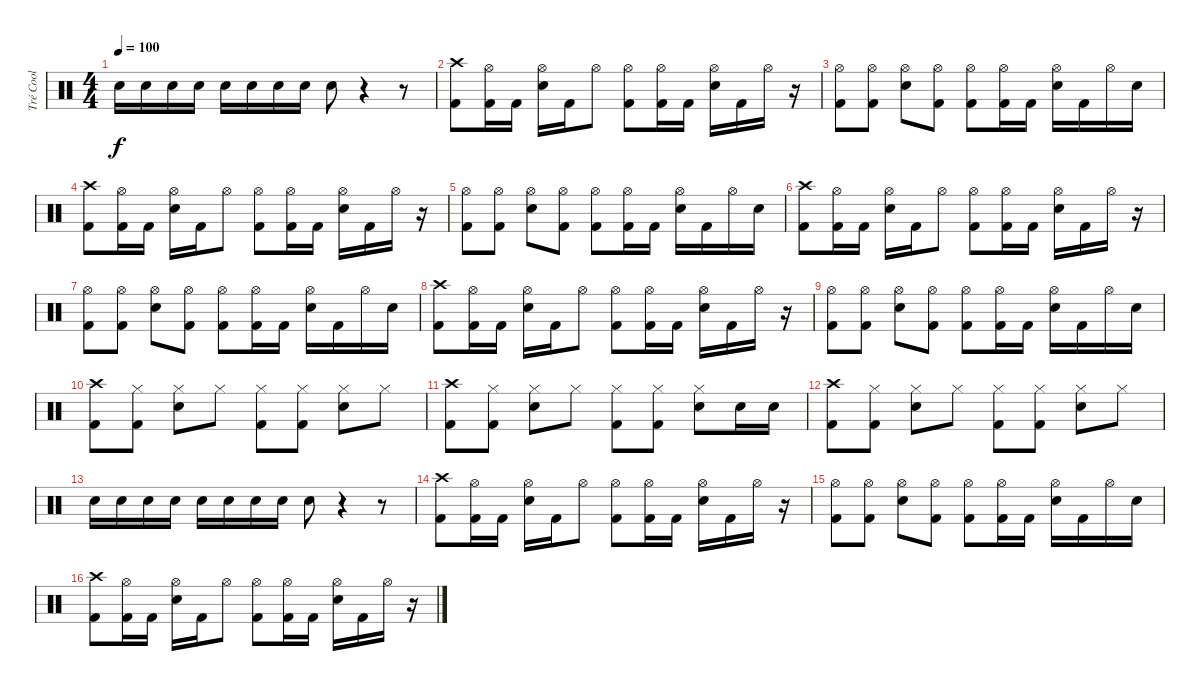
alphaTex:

\track ("Tré Cool" "Tré Cool") {instrument percussion}
\staff {score}
\articulation defaults
\ts (4 4)
\tempo 100
\clef neutral
\ks c "Electric Snare (hit)".16{dy f} "Electric Snare (hit)".16 "Electric Snare (hit)".16 "Electric Snare (hit)".16 "Electric Snare (hit)".16 "Electric Snare (hit)".16 "Electric Snare (hit)".16 "Electric Snare (hit)".16 "Electric Snare (hit)".8
r.4 r.8 |
("Crash high (hit)" "Kick (hit) 2").8 ("Hi-Hat (open)" "Kick (hit) 2").16 "Kick (hit) 2".16 ("Hi-Hat (open)" "Electric Snare (hit)").16 "Kick (hit) 2".16 "Hi-Hat (open)".8 ("Hi-Hat (open)" "Kick (hit) 2").8 ("Hi-Hat (open)" "Kick (hit) 2").16 "Kick (hit) 2".16 ("Hi-Hat (open)" "Electric Snare (hit)").16 "Kick (hit) 2".16 "Hi-Hat (open)".16 r.16 |
("Hi-Hat (open)" "Kick (hit) 2").8 ("Hi-Hat (open)" "Kick (hit) 2").8 ("Hi-Hat (open)" "Electric Snare (hit)").8 ("Hi-Hat (open)" "Kick (hit) 2").8 ("Hi-Hat (open)" "Kick (hit) 2").8 ("Hi-Hat (open)" "Kick (hit) 2").16 "Kick (hit) 2".16 ("Hi-Hat (open)" "Electric Snare (hit)").16 "Kick (hit) 2".16 "Hi-Hat (open)".16 "Electric Snare (hit)".16 |
("Crash high (hit)" "Kick (hit) 2").8 ("Hi-Hat (open)" "Kick (hit) 2").16 "Kick (hit) 2".16 ("Hi-Hat (open)" "Electric Snare (hit)").16 "Kick (hit) 2".16 "Hi-Hat (open)".8 ("Hi-Hat (open)" "Kick (hit) 2").8 ("Hi-Hat (open)" "Kick (hit) 2").16 "Kick (hit) 2".16 ("Hi-Hat (open)" "Electric Snare (hit)").16 "Kick (hit) 2".16 "Hi-Hat (open)".16 r.16 |
("Hi-Hat (open)" "Kick (hit) 2").8 ("Hi-Hat (open)" "Kick (hit) 2").8 ("Hi-Hat (open)" "Electric Snare (hit)").8 ("Hi-Hat (open)" "Kick (hit) 2").8 ("Hi-Hat (open)" "Kick (hit) 2").8 ("Hi-Hat (open)" "Kick (hit) 2").16 "Kick (hit) 2".16 ("Hi-Hat (open)" "Electric Snare (hit)").16 "Kick (hit) 2".16 "Hi-Hat (open)".16 "Electric Snare (hit)".16 |
("Crash high (hit)" "Kick (hit) 2").8 ("Hi-Hat (open)" "Kick (hit) 2").16 "Kick (hit) 2".16 ("Hi-Hat (open)" "Electric Snare (hit)").16 "Kick (hit) 2".16 "Hi-Hat (open)".8 ("Hi-Hat (open)" "Kick (hit) 2").8 ("Hi-Hat (open)" "Kick (hit) 2").16 "Kick (hit) 2".16 ("Hi-Hat (open)" "Electric Snare (hit)").16 "Kick (hit) 2".16 "Hi-Hat (open)".16 r.16 |
("Hi-Hat (open)" "Kick (hit) 2").8 ("Hi-Hat (open)" "Kick (hit) 2").8 ("Hi-Hat (open)" "Electric Snare (hit)").8 ("Hi-Hat (open)" "Kick (hit) 2").8 ("Hi-Hat (open)" "Kick (hit) 2").8 ("Hi-Hat (open)" "Kick (hit) 2").16 "Kick (hit) 2".16 ("Hi-Hat (open)" "Electric Snare (hit)").16 "Kick (hit) 2".16 "Hi-Hat (open)".16 "Electric Snare (hit)".16 |
("Crash high (hit)" "Kick (hit) 2").8 ("Hi-Hat (open)" "Kick (hit) 2").16 "Kick (hit) 2".16 ("Hi-Hat (open)" "Electric Snare (hit)").16 "Kick (hit) 2".16 "Hi-Hat (open)".8 ("Hi-Hat (open)" "Kick (hit) 2").8 ("Hi-Hat (open)" "Kick (hit) 2").16 "Kick (hit) 2".16 ("Hi-Hat (open)" "Electric Snare (hit)").16 "Kick (hit) 2".16 "Hi-Hat (open)".16 r.16 |
("Hi-Hat (open)" "Kick (hit) 2").8 ("Hi-Hat (open)" "Kick (hit) 2").8 ("Hi-Hat (open)" "Electric Snare (hit)").8 ("Hi-Hat (open)" "Kick (hit) 2").8 ("Hi-Hat (open)" "Kick (hit) 2").8 ("Hi-Hat (open)" "Kick (hit) 2").16 "Kick (hit) 2".16 ("Hi-Hat (open)" "Electric Snare (hit)").16 "Kick (hit) 2".16 "Hi-Hat (open)".16 "Electric Snare (hit)".16 |
("Crash high (hit)" "Kick (hit) 2").8 ("Hi-Hat (closed)" "Kick (hit) 2").8 ("Hi-Hat (closed)" "Electric Snare (hit)").8 "Hi-Hat (closed)".8 ("Hi-Hat (closed)" "Kick (hit) 2").8 ("Hi-Hat (closed)" "Kick (hit) 2").8 ("Hi-Hat (closed)" "Electric Snare (hit)").8 "Hi-Hat (closed)".8 |
("Crash high (hit)" "Kick (hit) 2").8 ("Hi-Hat (closed)" "Kick (hit) 2").8 ("Hi-Hat (closed)" "Electric Snare (hit)").8 "Hi-Hat (closed)".8 ("Hi-Hat (closed)" "Kick (hit) 2").8 ("Hi-Hat (closed)" "Kick (hit) 2").8 ("Hi-Hat (closed)" "Electric Snare (hit)").8 "Electric Snare (hit)".16 "Electric Snare (hit)".16 |
("Crash high (hit)" "Kick (hit) 2").8 ("Hi-Hat (closed)" "Kick (hit) 2").8 ("Hi-Hat (closed)" "Electric Snare (hit)").8 "Hi-Hat (closed)".8 ("Hi-Hat (closed)" "Kick (hit) 2").8 ("Hi-Hat (closed)" "Kick (hit) 2").8 ("Hi-Hat (closed)" "Electric Snare (hit)").8 "Hi-Hat (closed)".8 |
"Electric Snare (hit)".16 "Electric Snare (hit)".16 "Electric Snare (hit)".16 "Electric Snare (hit)".16 "Electric Snare (hit)".16 "Electric Snare (hit)".16 "Electric Snare (hit)".16 "Electric Snare (hit)".16 "Electric Snare (hit)".8 r.4 r.8 |
("Crash high (hit)" "Kick (hit) 2").8 ("Hi-Hat (open)" "Kick (hit) 2").16 "Kick (hit) 2".16 ("Hi-Hat (open)" "Electric Snare (hit)").16 "Kick (hit) 2".16 "Hi-Hat (open)".8 ("Hi-Hat (open)" "Kick (hit) 2").8 ("Hi-Hat (open)" "Kick (hit) 2").16 "Kick (hit) 2".16 ("Hi-Hat (open)" "Electric Snare (hit)").16 "Kick (hit) 2".16 "Hi-Hat (open)".16 r.16 |
("Hi-Hat (open)" "Kick (hit) 2").8 ("Hi-Hat (open)" "Kick (hit) 2").8 ("Hi-Hat (open)" "Electric Snare (hit)").8 ("Hi-Hat (open)" "Kick (hit) 2").8 ("Hi-Hat (open)" "Kick (hit) 2").8 ("Hi-Hat (open)" "Kick (hit) 2").16 "Kick (hit) 2".16 ("Hi-Hat (open)" "Electric Snare (hit)").16 "Kick (hit) 2".16 "Hi-Hat (open)".16 "Electric Snare (hit)".16 |
("Crash high (hit)" "Kick (hit) 2").8 ("Hi-Hat (open)" "Kick (hit) 2").16 "Kick (hit) 2".16 ("Hi-Hat (open)" "Electric Snare (hit)").16 "Kick (hit) 2".16 "Hi-Hat (open)".8 ("Hi-Hat (open)" "Kick (hit) 2").8 ("Hi-Hat (open)" "Kick (hit) 2").16 "Kick (hit) 2".16 ("Hi-Hat (open)" "Electric Snare (hit)").16 "Kick (hit) 2".16 "Hi-Hat (open)".16 r.16
